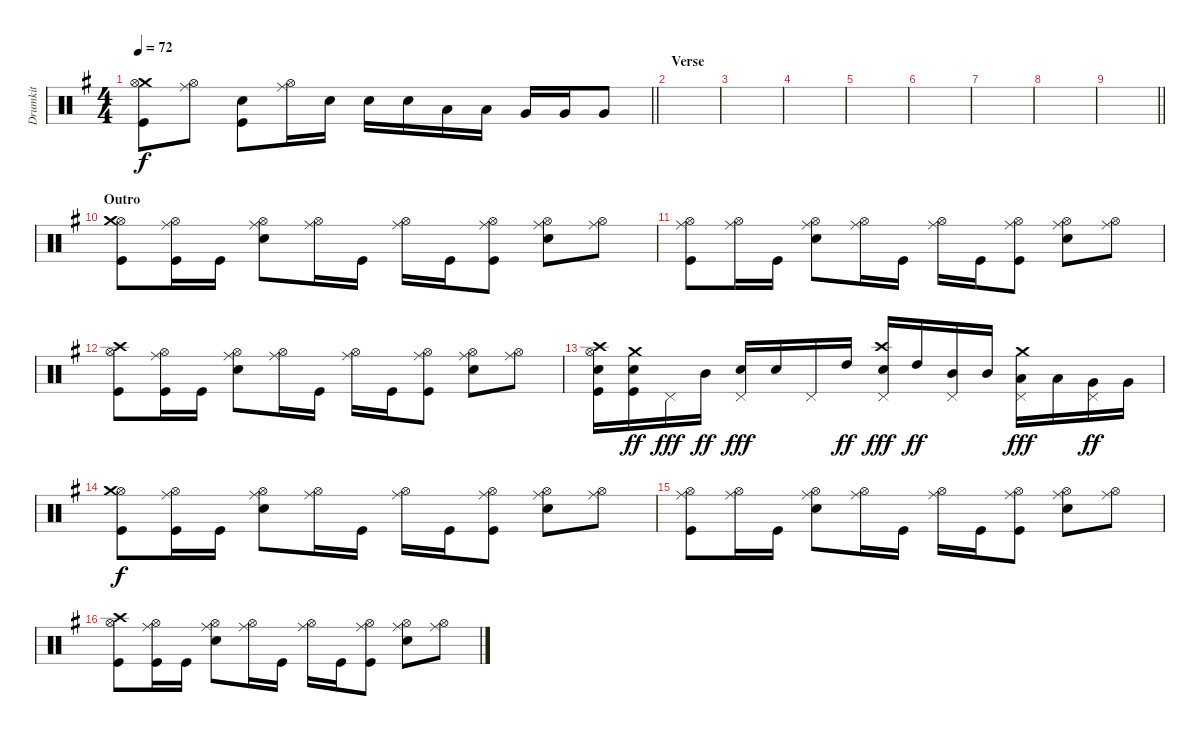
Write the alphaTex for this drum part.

\track ("Drumkit" "Drumkit") {instrument percussion}
\staff {score}
\articulation defaults
\ts (4 4)
\tempo 72
\clef neutral
\barLineRight lightlight
\ks g
("Crash medium (hit)" "Hi-Hat (open)" "Kick (hit)").8{dy f} ("Hi-Hat (open)" "Ride (middle)").8 ("Snare (hit) 2" "Kick (hit)").8 ("Hi-Hat (open)" "Ride (middle)").16 "Snare (hit) 2".16 "Snare (hit) 2".16 "Snare (hit) 2".16 "Low Tom (hit)".16 "Low Tom (hit)".16 "Very Low Tom (hit)".16 "Very Low Tom (hit)".16 "Very Low Tom (hit)".8 |
\section ("" "Verse")
|
|
|
|
|
|
|
\barLineRight lightlight
|
\section ("" "Outro")
("Hi-Hat (open)" "Crash medium (hit)" "Kick (hit)").8 ("Hi-Hat (open)" "Ride (middle)" "Kick (hit)").16 "Kick (hit)".16 ("Hi-Hat (open)" "Ride (middle)" "Snare (hit) 2").8 ("Hi-Hat (open)" "Ride (middle)").16 "Kick (hit)".16 ("Hi-Hat (open)" "Ride (middle)").16 "Kick (hit)".16 ("Hi-Hat (open)" "Ride (middle)" "Kick (hit)").8 ("Hi-Hat (open)" "Ride (middle)" "Snare (hit) 2").8 ("Hi-Hat (open)" "Ride (middle)").8 |
("Hi-Hat (open)" "Ride (middle)" "Kick (hit)").8 ("Hi-Hat (open)" "Ride (middle)").16 "Kick (hit)".16 ("Hi-Hat (open)" "Ride (middle)" "Snare (hit) 2").8 ("Hi-Hat (open)" "Ride (middle)").16 "Kick (hit)".16 ("Hi-Hat (open)" "Ride (middle)").16 "Kick (hit)".16 ("Hi-Hat (open)" "Ride (middle)" "Kick (hit)").8 ("Hi-Hat (open)" "Ride (middle)" "Snare (hit) 2").8 ("Hi-Hat (open)" "Ride (middle)").8 |
("Hi-Hat (open)" "Crash high (hit)" "Kick (hit)").8 ("Hi-Hat (open)" "Ride (middle)" "Kick (hit)").16 "Kick (hit)".16 ("Hi-Hat (open)" "Ride (middle)" "Snare (hit) 2").8 ("Hi-Hat (open)" "Ride (middle)").16 "Kick (hit)".16 ("Hi-Hat (open)" "Ride (middle)").16 "Kick (hit)".16 ("Hi-Hat (open)" "Ride (middle)" "Kick (hit)").8 ("Hi-Hat (open)" "Ride (middle)" "Snare (hit) 2").8 ("Hi-Hat (open)" "Ride (middle)").8 |
("Hi-Hat (open)" "Crash high (hit)" "Snare (hit) 2" "Kick (hit)").16 ("Crash medium (hit)" "Snare (hit) 2" "Kick (hit)").16{dy ff} "Pedal Hi-Hat (hit)".16{dy fff} "Mid Tom (hit)".16{dy ff} ("Pedal Hi-Hat (hit)" "Snare (hit) 2").16{dy fff} "Snare (hit) 2".16 "Pedal Hi-Hat (hit)".16 "High Tom (hit)".16{dy ff} ("Pedal Hi-Hat (hit)" "Crash high (hit)" "Snare (hit) 2").16{dy fff} "High Tom (hit)".16{dy ff} ("Pedal Hi-Hat (hit)" "Mid Tom (hit)").16 "Mid Tom (hit)".16 ("Pedal Hi-Hat (hit)" "Crash medium (hit)" "Low Tom (hit)").16{dy fff} "Low Tom (hit)".16 ("Pedal Hi-Hat (hit)" "Very Low Tom (hit)").16{dy ff} "Very Low Tom (hit)".16 |
("Hi-Hat (open)" "Crash medium (hit)" "Kick (hit)").8{dy f} ("Hi-Hat (open)" "Ride (middle)" "Kick (hit)").16 "Kick (hit)".16 ("Hi-Hat (open)" "Ride (middle)" "Snare (hit) 2").8 ("Hi-Hat (open)" "Ride (middle)").16 "Kick (hit)".16 ("Hi-Hat (open)" "Ride (middle)").16 "Kick (hit)".16 ("Hi-Hat (open)" "Ride (middle)" "Kick (hit)").8 ("Hi-Hat (open)" "Ride (middle)" "Snare (hit) 2").8 ("Hi-Hat (open)" "Ride (middle)").8 |
("Hi-Hat (open)" "Ride (middle)" "Kick (hit)").8 ("Hi-Hat (open)" "Ride (middle)").16 "Kick (hit)".16 ("Hi-Hat (open)" "Ride (middle)" "Snare (hit) 2").8 ("Hi-Hat (open)" "Ride (middle)").16 "Kick (hit)".16 ("Hi-Hat (open)" "Ride (middle)").16 "Kick (hit)".16 ("Hi-Hat (open)" "Ride (middle)" "Kick (hit)").8 ("Hi-Hat (open)" "Ride (middle)" "Snare (hit) 2").8 ("Hi-Hat (open)" "Ride (middle)").8 |
("Hi-Hat (open)" "Crash high (hit)" "Kick (hit)").8 ("Hi-Hat (open)" "Ride (middle)" "Kick (hit)").16 "Kick (hit)".16 ("Hi-Hat (open)" "Ride (middle)" "Snare (hit) 2").8 ("Hi-Hat (open)" "Ride (middle)").16 "Kick (hit)".16 ("Hi-Hat (open)" "Ride (middle)").16 "Kick (hit)".16 ("Hi-Hat (open)" "Ride (middle)" "Kick (hit)").8 ("Hi-Hat (open)" "Ride (middle)" "Snare (hit) 2").8 ("Hi-Hat (open)" "Ride (middle)").8
